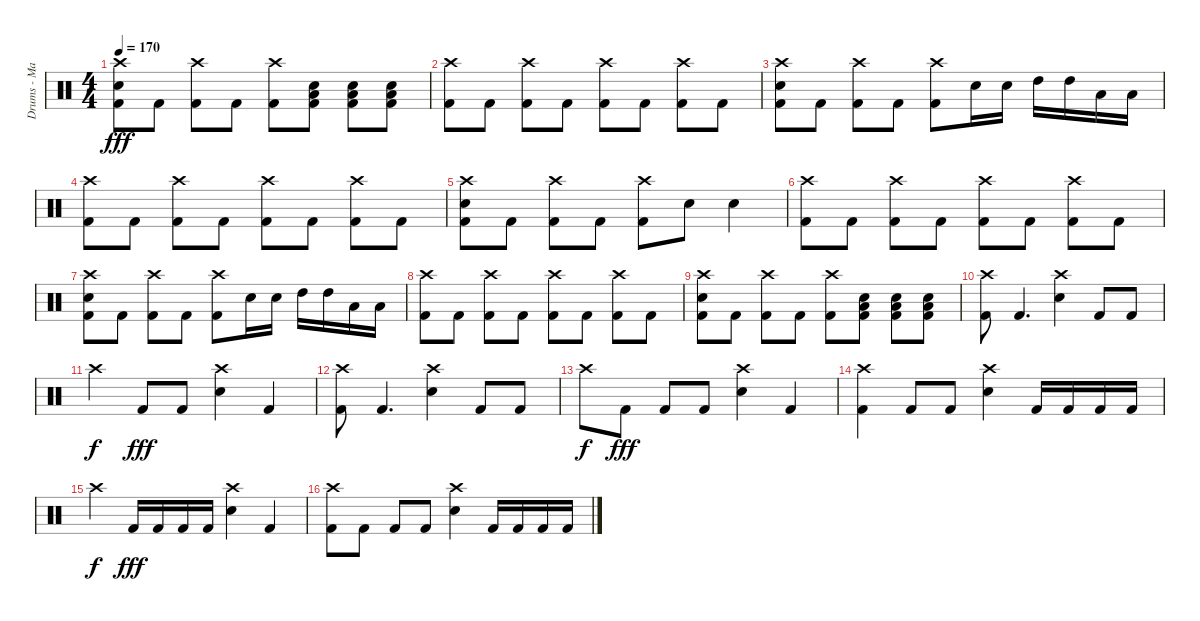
\track ("Drums - Matt Traynor" "Drums - Ma") {instrument percussion}
\staff {score}
\articulation defaults
\ts (4 4)
\tempo 170
\clef neutral
\ks c
("Crash high (hit)" "Snare (hit) 2" "Kick (hit) 2").8{dy fff} "Kick (hit) 2".8 ("Crash high (hit)" "Kick (hit) 2").8 "Kick (hit) 2".8 ("Crash high (hit)" "Kick (hit) 2").8 ("Snare (hit) 2" "Low Tom (hit)" "Kick (hit) 2").8 ("Snare (hit) 2" "Low Tom (hit)" "Kick (hit) 2").8 ("Snare (hit) 2" "Low Tom (hit)" "Kick (hit) 2").8 |
("Crash high (hit)" "Kick (hit) 2").8 "Kick (hit) 2".8 ("Crash high (hit)" "Kick (hit) 2").8 "Kick (hit) 2".8 ("Crash high (hit)" "Kick (hit) 2").8 "Kick (hit) 2".8 ("Crash high (hit)" "Kick (hit) 2").8 "Kick (hit) 2".8 |
("Crash high (hit)" "Snare (hit) 2" "Kick (hit) 2").8 "Kick (hit) 2".8 ("Crash high (hit)" "Kick (hit) 2").8 "Kick (hit) 2".8 ("Crash high (hit)" "Kick (hit) 2").8 "Snare (hit) 2".16 "Snare (hit) 2".16 "High Tom (hit)".16 "High Tom (hit)".16 "Low Tom (hit)".16 "Low Tom (hit)".16 |
("Crash high (hit)" "Kick (hit) 2").8 "Kick (hit) 2".8 ("Crash high (hit)" "Kick (hit) 2").8 "Kick (hit) 2".8 ("Crash high (hit)" "Kick (hit) 2").8 "Kick (hit) 2".8 ("Crash high (hit)" "Kick (hit) 2").8 "Kick (hit) 2".8 |
("Crash high (hit)" "Snare (hit) 2" "Kick (hit) 2").8 "Kick (hit) 2".8 ("Crash high (hit)" "Kick (hit) 2").8 "Kick (hit) 2".8 ("Crash high (hit)" "Kick (hit) 2").8 "Snare (hit) 2".8 "Snare (hit) 2".4 |
("Crash high (hit)" "Kick (hit) 2").8 "Kick (hit) 2".8 ("Crash high (hit)" "Kick (hit) 2").8 "Kick (hit) 2".8 ("Crash high (hit)" "Kick (hit) 2").8 "Kick (hit) 2".8 ("Crash high (hit)" "Kick (hit) 2").8 "Kick (hit) 2".8 |
("Crash high (hit)" "Snare (hit) 2" "Kick (hit) 2").8 "Kick (hit) 2".8 ("Crash high (hit)" "Kick (hit) 2").8 "Kick (hit) 2".8 ("Crash high (hit)" "Kick (hit) 2").8 "Snare (hit) 2".16 "Snare (hit) 2".16 "High Tom (hit)".16 "High Tom (hit)".16 "Low Tom (hit)".16 "Low Tom (hit)".16 |
("Crash high (hit)" "Kick (hit) 2").8 "Kick (hit) 2".8 ("Crash high (hit)" "Kick (hit) 2").8 "Kick (hit) 2".8 ("Crash high (hit)" "Kick (hit) 2").8 "Kick (hit) 2".8 ("Crash high (hit)" "Kick (hit) 2").8 "Kick (hit) 2".8 |
("Crash high (hit)" "Snare (hit) 2" "Kick (hit) 2").8 "Kick (hit) 2".8 ("Crash high (hit)" "Kick (hit) 2").8 "Kick (hit) 2".8 ("Crash high (hit)" "Kick (hit) 2").8 ("Snare (hit) 2" "Low Tom (hit)" "Kick (hit) 2").8 ("Snare (hit) 2" "Low Tom (hit)" "Kick (hit) 2").8 ("Snare (hit) 2" "Low Tom (hit)" "Kick (hit) 2").8 |
("Crash high (hit)" "Kick (hit) 2").8 "Kick (hit) 2".4{d} ("Crash high (hit)" "Snare (hit) 2").4 "Kick (hit) 2".8 "Kick (hit) 2".8 |
"Crash high (hit)".4{dy f} "Kick (hit) 2".8{dy fff} "Kick (hit) 2".8 ("Crash high (hit)" "Snare (hit) 2").4 "Kick (hit) 2".4 |
("Crash high (hit)" "Kick (hit) 2").8 "Kick (hit) 2".4{d} ("Crash high (hit)" "Snare (hit) 2").4 "Kick (hit) 2".8 "Kick (hit) 2".8 |
"Crash high (hit)".8{dy f} "Kick (hit) 2".8{dy fff} "Kick (hit) 2".8 "Kick (hit) 2".8 ("Crash high (hit)" "Snare (hit) 2").4 "Kick (hit) 2".4 |
("Crash high (hit)" "Kick (hit) 2").4 "Kick (hit) 2".8 "Kick (hit) 2".8 ("Crash high (hit)" "Snare (hit) 2").4 "Kick (hit) 2".16 "Kick (hit) 2".16 "Kick (hit) 2".16 "Kick (hit) 2".16 |
"Crash high (hit)".4{dy f} "Kick (hit) 2".16{dy fff} "Kick (hit) 2".16 "Kick (hit) 2".16 "Kick (hit) 2".16 ("Crash high (hit)" "Snare (hit) 2").4 "Kick (hit) 2".4 |
("Crash high (hit)" "Kick (hit) 2").8 "Kick (hit) 2".8 "Kick (hit) 2".8 "Kick (hit) 2".8 ("Crash high (hit)" "Snare (hit) 2").4 "Kick (hit) 2".16 "Kick (hit) 2".16 "Kick (hit) 2".16 "Kick (hit) 2".16
